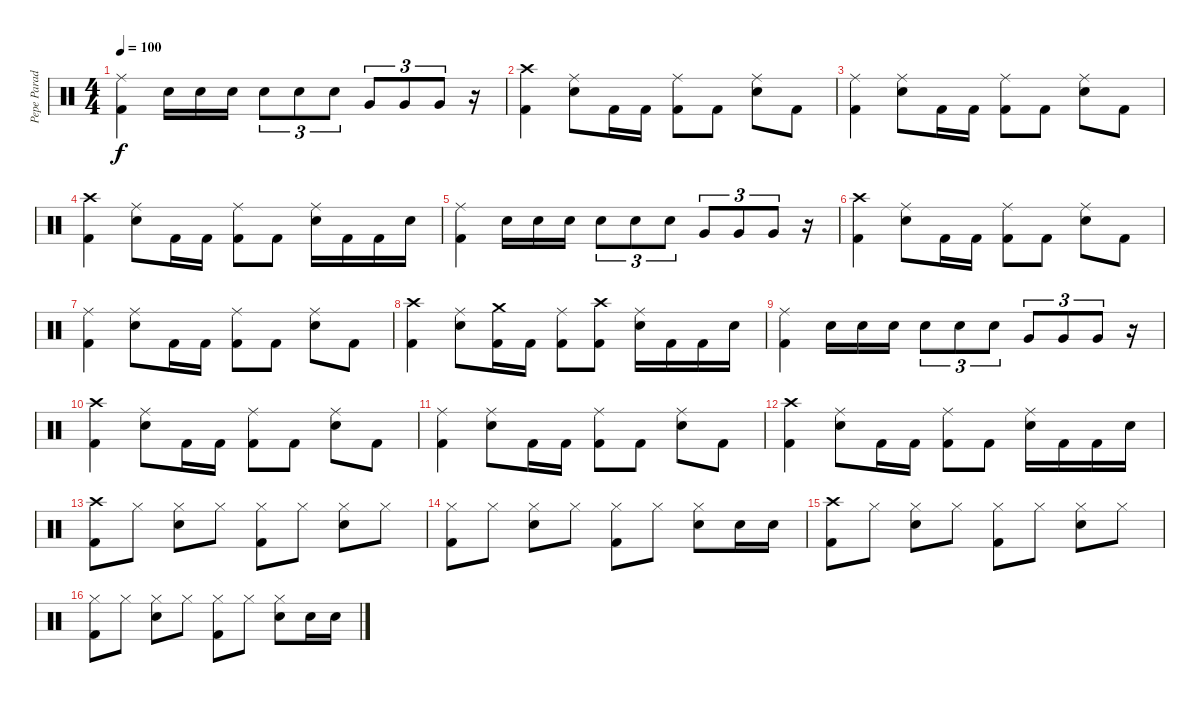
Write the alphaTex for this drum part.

\track ("Pepe Parada (kit de percusion)" "Pepe Parad") {instrument percussion}
\staff {score}
\articulation defaults
\ts (4 4)
\tempo 100
\clef neutral
\ks c
("Ride (middle)" "Kick (hit) 2").4{dy f} "Snare (hit) 2".16 "Snare (hit) 2".16 "Snare (hit) 2".16 "Snare (hit) 2".8{tu (3 2)} "Snare (hit) 2".8{tu (3 2)} "Snare (hit) 2".8{tu (3 2)} "Very Low Tom (hit)".8{tu (3 2)} "Very Low Tom (hit)".8{tu (3 2)} "Very Low Tom (hit)".8{tu (3 2)} r.16 |
("Crash high (hit)" "Kick (hit) 2").4 ("Ride (middle)" "Snare (hit) 2").8 "Kick (hit) 2".16 "Kick (hit) 2".16 ("Ride (middle)" "Kick (hit) 2").8 "Kick (hit) 2".8 ("Ride (middle)" "Snare (hit) 2").8 "Kick (hit) 2".8 |
("Ride (middle)" "Kick (hit) 2").4 ("Ride (middle)" "Snare (hit) 2").8 "Kick (hit) 2".16 "Kick (hit) 2".16 ("Ride (middle)" "Kick (hit) 2").8 "Kick (hit) 2".8 ("Ride (middle)" "Snare (hit) 2").8 "Kick (hit) 2".8 |
("Crash high (hit)" "Kick (hit) 2").4 ("Ride (middle)" "Snare (hit) 2").8 "Kick (hit) 2".16 "Kick (hit) 2".16 ("Ride (middle)" "Kick (hit) 2").8 "Kick (hit) 2".8 ("Ride (middle)" "Snare (hit) 2").16 "Kick (hit) 2".16 "Kick (hit) 2".16 "Snare (hit) 2".16 |
("Ride (middle)" "Kick (hit) 2").4 "Snare (hit) 2".16 "Snare (hit) 2".16 "Snare (hit) 2".16 "Snare (hit) 2".8{tu (3 2)} "Snare (hit) 2".8{tu (3 2)} "Snare (hit) 2".8{tu (3 2)} "Very Low Tom (hit)".8{tu (3 2)} "Very Low Tom (hit)".8{tu (3 2)} "Very Low Tom (hit)".8{tu (3 2)} r.16 |
("Crash high (hit)" "Kick (hit) 2").4 ("Ride (middle)" "Snare (hit) 2").8 "Kick (hit) 2".16 "Kick (hit) 2".16 ("Ride (middle)" "Kick (hit) 2").8 "Kick (hit) 2".8 ("Ride (middle)" "Snare (hit) 2").8 "Kick (hit) 2".8 |
("Ride (middle)" "Kick (hit) 2").4 ("Ride (middle)" "Snare (hit) 2").8 "Kick (hit) 2".16 "Kick (hit) 2".16 ("Ride (middle)" "Kick (hit) 2").8 "Kick (hit) 2".8 ("Ride (middle)" "Snare (hit) 2").8 "Kick (hit) 2".8 |
("Crash high (hit)" "Kick (hit) 2").4 ("Ride (middle)" "Snare (hit) 2").8 ("Crash medium (hit)" "Kick (hit) 2").16 "Kick (hit) 2".16 ("Ride (middle)" "Kick (hit) 2").8 ("Crash high (hit)" "Kick (hit) 2").8 ("Ride (middle)" "Snare (hit) 2").16 "Kick (hit) 2".16 "Kick (hit) 2".16 "Snare (hit) 2".16 |
("Ride (middle)" "Kick (hit) 2").4 "Snare (hit) 2".16 "Snare (hit) 2".16 "Snare (hit) 2".16 "Snare (hit) 2".8{tu (3 2)} "Snare (hit) 2".8{tu (3 2)} "Snare (hit) 2".8{tu (3 2)} "Very Low Tom (hit)".8{tu (3 2)} "Very Low Tom (hit)".8{tu (3 2)} "Very Low Tom (hit)".8{tu (3 2)} r.16 |
("Crash high (hit)" "Kick (hit) 2").4 ("Ride (middle)" "Snare (hit) 2").8 "Kick (hit) 2".16 "Kick (hit) 2".16 ("Ride (middle)" "Kick (hit) 2").8 "Kick (hit) 2".8 ("Ride (middle)" "Snare (hit) 2").8 "Kick (hit) 2".8 |
("Ride (middle)" "Kick (hit) 2").4 ("Ride (middle)" "Snare (hit) 2").8 "Kick (hit) 2".16 "Kick (hit) 2".16 ("Ride (middle)" "Kick (hit) 2").8 "Kick (hit) 2".8 ("Ride (middle)" "Snare (hit) 2").8 "Kick (hit) 2".8 |
("Crash high (hit)" "Kick (hit) 2").4 ("Ride (middle)" "Snare (hit) 2").8 "Kick (hit) 2".16 "Kick (hit) 2".16 ("Ride (middle)" "Kick (hit) 2").8 "Kick (hit) 2".8 ("Ride (middle)" "Snare (hit) 2").16 "Kick (hit) 2".16 "Kick (hit) 2".16 "Snare (hit) 2".16 |
("Crash high (hit)" "Kick (hit) 2").8 "Hi-Hat (closed)".8 ("Hi-Hat (closed)" "Snare (hit) 2").8 "Hi-Hat (closed)".8 ("Hi-Hat (closed)" "Kick (hit) 2").8 "Hi-Hat (closed)".8 ("Hi-Hat (closed)" "Snare (hit) 2").8 "Hi-Hat (closed)".8 |
("Hi-Hat (closed)" "Kick (hit) 2").8 "Hi-Hat (closed)".8 ("Hi-Hat (closed)" "Snare (hit) 2").8 "Hi-Hat (closed)".8 ("Hi-Hat (closed)" "Kick (hit) 2").8 "Hi-Hat (closed)".8 ("Hi-Hat (closed)" "Snare (hit) 2").8 "Snare (hit) 2".16 "Snare (hit) 2".16 |
("Crash high (hit)" "Kick (hit) 2").8 "Hi-Hat (closed)".8 ("Hi-Hat (closed)" "Snare (hit) 2").8 "Hi-Hat (closed)".8 ("Hi-Hat (closed)" "Kick (hit) 2").8 "Hi-Hat (closed)".8 ("Hi-Hat (closed)" "Snare (hit) 2").8 "Hi-Hat (closed)".8 |
("Hi-Hat (closed)" "Kick (hit) 2").8 "Hi-Hat (closed)".8 ("Hi-Hat (closed)" "Snare (hit) 2").8 "Hi-Hat (closed)".8 ("Hi-Hat (closed)" "Kick (hit) 2").8 "Hi-Hat (closed)".8 ("Hi-Hat (closed)" "Snare (hit) 2").8 "Snare (hit) 2".16 "Snare (hit) 2".16
